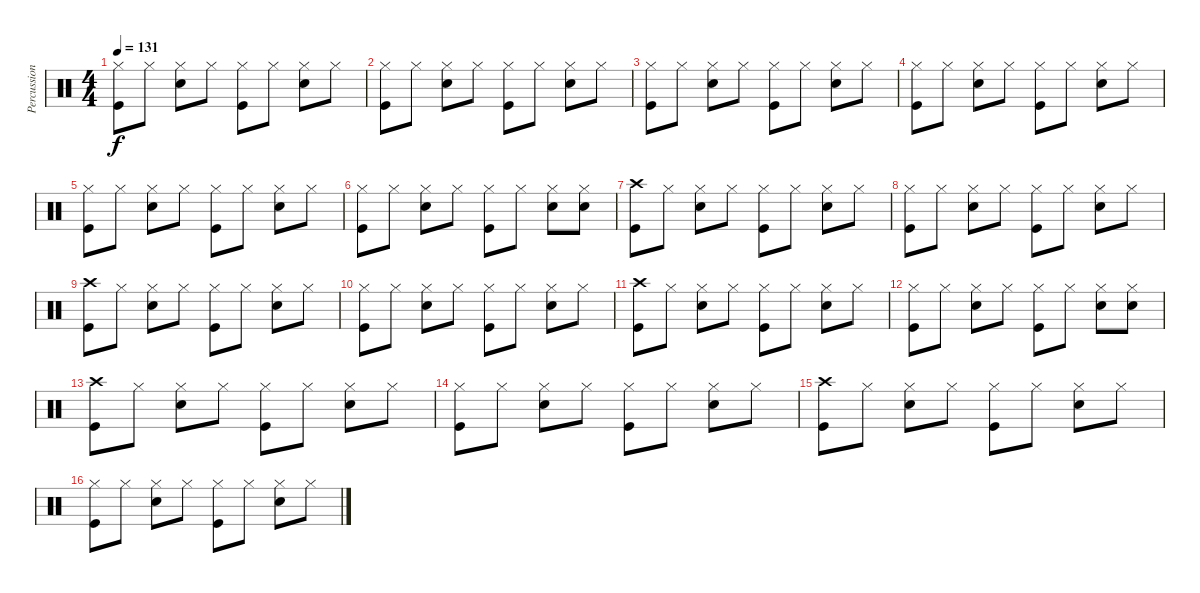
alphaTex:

\track ("Percussion" "Percussion") {instrument percussion}
\staff {score}
\articulation defaults
\ts (4 4)
\tempo 131
\clef neutral
\ks c
("Hi-Hat (closed)" "Kick (hit)").8{dy f} "Hi-Hat (closed)".8 ("Hi-Hat (closed)" "Snare (hit) 2").8 "Hi-Hat (closed)".8 ("Hi-Hat (closed)" "Kick (hit)").8 "Hi-Hat (closed)".8 ("Hi-Hat (closed)" "Snare (hit) 2").8 "Hi-Hat (closed)".8 |
("Hi-Hat (closed)" "Kick (hit)").8 "Hi-Hat (closed)".8 ("Hi-Hat (closed)" "Snare (hit) 2").8 "Hi-Hat (closed)".8 ("Hi-Hat (closed)" "Kick (hit)").8 "Hi-Hat (closed)".8 ("Hi-Hat (closed)" "Snare (hit) 2").8 "Hi-Hat (closed)".8 |
("Hi-Hat (closed)" "Kick (hit)").8 "Hi-Hat (closed)".8 ("Hi-Hat (closed)" "Snare (hit) 2").8 "Hi-Hat (closed)".8 ("Hi-Hat (closed)" "Kick (hit)").8 "Hi-Hat (closed)".8 ("Hi-Hat (closed)" "Snare (hit) 2").8 "Hi-Hat (closed)".8 |
("Hi-Hat (closed)" "Kick (hit)").8 "Hi-Hat (closed)".8 ("Hi-Hat (closed)" "Snare (hit) 2").8 "Hi-Hat (closed)".8 ("Hi-Hat (closed)" "Kick (hit)").8 "Hi-Hat (closed)".8 ("Hi-Hat (closed)" "Snare (hit) 2").8 "Hi-Hat (closed)".8 |
("Hi-Hat (closed)" "Kick (hit)").8 "Hi-Hat (closed)".8 ("Hi-Hat (closed)" "Snare (hit) 2").8 "Hi-Hat (closed)".8 ("Hi-Hat (closed)" "Kick (hit)").8 "Hi-Hat (closed)".8 ("Hi-Hat (closed)" "Snare (hit) 2").8 "Hi-Hat (closed)".8 |
("Hi-Hat (closed)" "Kick (hit)").8 "Hi-Hat (closed)".8 ("Hi-Hat (closed)" "Snare (hit) 2").8 "Hi-Hat (closed)".8 ("Hi-Hat (closed)" "Kick (hit)").8 "Hi-Hat (closed)".8 ("Hi-Hat (closed)" "Snare (hit) 2").8 ("Hi-Hat (closed)" "Snare (hit) 2").8 |
("Crash high (hit)" "Kick (hit)").8 "Hi-Hat (closed)".8 ("Hi-Hat (closed)" "Snare (hit) 2").8 "Hi-Hat (closed)".8 ("Hi-Hat (closed)" "Kick (hit)").8 "Hi-Hat (closed)".8 ("Hi-Hat (closed)" "Snare (hit) 2").8 "Hi-Hat (closed)".8 |
("Hi-Hat (closed)" "Kick (hit)").8 "Hi-Hat (closed)".8 ("Hi-Hat (closed)" "Snare (hit) 2").8 "Hi-Hat (closed)".8 ("Hi-Hat (closed)" "Kick (hit)").8 "Hi-Hat (closed)".8 ("Hi-Hat (closed)" "Snare (hit) 2").8 "Hi-Hat (closed)".8 |
("Crash high (hit)" "Kick (hit)").8 "Hi-Hat (closed)".8 ("Hi-Hat (closed)" "Snare (hit) 2").8 "Hi-Hat (closed)".8 ("Hi-Hat (closed)" "Kick (hit)").8 "Hi-Hat (closed)".8 ("Hi-Hat (closed)" "Snare (hit) 2").8 "Hi-Hat (closed)".8 |
("Hi-Hat (closed)" "Kick (hit)").8 "Hi-Hat (closed)".8 ("Hi-Hat (closed)" "Snare (hit) 2").8 "Hi-Hat (closed)".8 ("Hi-Hat (closed)" "Kick (hit)").8 "Hi-Hat (closed)".8 ("Hi-Hat (closed)" "Snare (hit) 2").8 "Hi-Hat (closed)".8 |
("Crash high (hit)" "Kick (hit)").8 "Hi-Hat (closed)".8 ("Hi-Hat (closed)" "Snare (hit) 2").8 "Hi-Hat (closed)".8 ("Hi-Hat (closed)" "Kick (hit)").8 "Hi-Hat (closed)".8 ("Hi-Hat (closed)" "Snare (hit) 2").8 "Hi-Hat (closed)".8 |
("Hi-Hat (closed)" "Kick (hit)").8 "Hi-Hat (closed)".8 ("Hi-Hat (closed)" "Snare (hit) 2").8 "Hi-Hat (closed)".8 ("Hi-Hat (closed)" "Kick (hit)").8 "Hi-Hat (closed)".8 ("Hi-Hat (closed)" "Snare (hit) 2").8 ("Hi-Hat (closed)" "Snare (hit) 2").8 |
("Crash high (hit)" "Kick (hit)").8 "Hi-Hat (closed)".8 ("Hi-Hat (closed)" "Snare (hit) 2").8 "Hi-Hat (closed)".8 ("Hi-Hat (closed)" "Kick (hit)").8 "Hi-Hat (closed)".8 ("Hi-Hat (closed)" "Snare (hit) 2").8 "Hi-Hat (closed)".8 |
("Hi-Hat (closed)" "Kick (hit)").8 "Hi-Hat (closed)".8 ("Hi-Hat (closed)" "Snare (hit) 2").8 "Hi-Hat (closed)".8 ("Hi-Hat (closed)" "Kick (hit)").8 "Hi-Hat (closed)".8 ("Hi-Hat (closed)" "Snare (hit) 2").8 "Hi-Hat (closed)".8 |
("Crash high (hit)" "Kick (hit)").8 "Hi-Hat (closed)".8 ("Hi-Hat (closed)" "Snare (hit) 2").8 "Hi-Hat (closed)".8 ("Hi-Hat (closed)" "Kick (hit)").8 "Hi-Hat (closed)".8 ("Hi-Hat (closed)" "Snare (hit) 2").8 "Hi-Hat (closed)".8 |
("Hi-Hat (closed)" "Kick (hit)").8 "Hi-Hat (closed)".8 ("Hi-Hat (closed)" "Snare (hit) 2").8 "Hi-Hat (closed)".8 ("Hi-Hat (closed)" "Kick (hit)").8 "Hi-Hat (closed)".8 ("Hi-Hat (closed)" "Snare (hit) 2").8 "Hi-Hat (closed)".8
